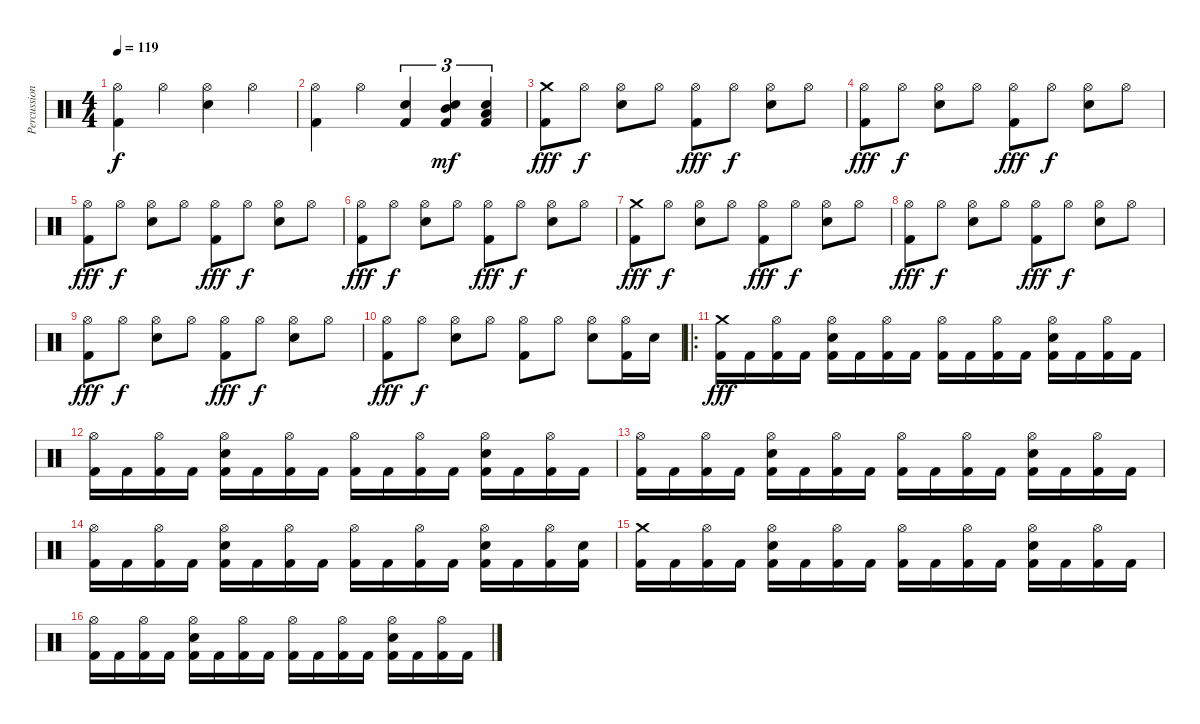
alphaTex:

\track ("Percussion" "Percussion") {instrument percussion}
\staff {score}
\articulation defaults
\ts (4 4)
\tempo 119
\clef neutral
\ks c
("Hi-Hat (open)" "Kick (hit) 2").4{dy f} "Hi-Hat (open)".4 ("Hi-Hat (open)" "Electric Snare (hit)").4 "Hi-Hat (open)".4 |
("Hi-Hat (open)" "Kick (hit) 2").4 "Hi-Hat (open)".4 ("Electric Snare (hit)" "Kick (hit) 2").4{tu (3 2)} ("Electric Snare (hit)" "Mid Tom (hit)" "Kick (hit) 2").4{tu (3 2) dy mf} ("Electric Snare (hit)" "Low Tom (hit)" "Kick (hit) 2").4{tu (3 2)} |
("Crash medium (hit)" "Kick (hit) 2").8{dy fff} "Hi-Hat (open)".8{dy f} ("Hi-Hat (open)" "Electric Snare (hit)").8 "Hi-Hat (open)".8 ("Hi-Hat (open)" "Kick (hit) 2").8{dy fff} "Hi-Hat (open)".8{dy f} ("Hi-Hat (open)" "Electric Snare (hit)").8 "Hi-Hat (open)".8 |
("Hi-Hat (open)" "Kick (hit) 2").8{dy fff} "Hi-Hat (open)".8{dy f} ("Hi-Hat (open)" "Electric Snare (hit)").8 "Hi-Hat (open)".8 ("Hi-Hat (open)" "Kick (hit) 2").8{dy fff} "Hi-Hat (open)".8{dy f} ("Hi-Hat (open)" "Electric Snare (hit)").8 "Hi-Hat (open)".8 |
("Hi-Hat (open)" "Kick (hit) 2").8{dy fff} "Hi-Hat (open)".8{dy f} ("Hi-Hat (open)" "Electric Snare (hit)").8 "Hi-Hat (open)".8 ("Hi-Hat (open)" "Kick (hit) 2").8{dy fff} "Hi-Hat (open)".8{dy f} ("Hi-Hat (open)" "Electric Snare (hit)").8 "Hi-Hat (open)".8 |
("Hi-Hat (open)" "Kick (hit) 2").8{dy fff} "Hi-Hat (open)".8{dy f} ("Hi-Hat (open)" "Electric Snare (hit)").8 "Hi-Hat (open)".8 ("Hi-Hat (open)" "Kick (hit) 2").8{dy fff} "Hi-Hat (open)".8{dy f} ("Hi-Hat (open)" "Electric Snare (hit)").8 "Hi-Hat (open)".8 |
("Crash medium (hit)" "Kick (hit) 2").8{dy fff} "Hi-Hat (open)".8{dy f} ("Hi-Hat (open)" "Electric Snare (hit)").8 "Hi-Hat (open)".8 ("Hi-Hat (open)" "Kick (hit) 2").8{dy fff} "Hi-Hat (open)".8{dy f} ("Hi-Hat (open)" "Electric Snare (hit)").8 "Hi-Hat (open)".8 |
("Hi-Hat (open)" "Kick (hit) 2").8{dy fff} "Hi-Hat (open)".8{dy f} ("Hi-Hat (open)" "Electric Snare (hit)").8 "Hi-Hat (open)".8 ("Hi-Hat (open)" "Kick (hit) 2").8{dy fff} "Hi-Hat (open)".8{dy f} ("Hi-Hat (open)" "Electric Snare (hit)").8 "Hi-Hat (open)".8 |
("Hi-Hat (open)" "Kick (hit) 2").8{dy fff} "Hi-Hat (open)".8{dy f} ("Hi-Hat (open)" "Electric Snare (hit)").8 "Hi-Hat (open)".8 ("Hi-Hat (open)" "Kick (hit) 2").8{dy fff} "Hi-Hat (open)".8{dy f} ("Hi-Hat (open)" "Electric Snare (hit)").8 "Hi-Hat (open)".8 |
("Hi-Hat (open)" "Kick (hit) 2").8{dy fff} "Hi-Hat (open)".8{dy f} ("Hi-Hat (open)" "Electric Snare (hit)").8 "Hi-Hat (open)".8 ("Hi-Hat (open)" "Kick (hit) 2").8 "Hi-Hat (open)".8 ("Hi-Hat (open)" "Electric Snare (hit)").8 ("Hi-Hat (open)" "Kick (hit) 2").16 "Electric Snare (hit)".16 |
\ro
("Crash medium (hit)" "Kick (hit) 2").16{dy fff} "Kick (hit) 2".16 ("Hi-Hat (open)" "Kick (hit) 2").16 "Kick (hit) 2".16 ("Hi-Hat (open)" "Electric Snare (hit)" "Kick (hit) 2").16 "Kick (hit) 2".16 ("Hi-Hat (open)" "Kick (hit) 2").16 "Kick (hit) 2".16 ("Hi-Hat (open)" "Kick (hit) 2").16 "Kick (hit) 2".16 ("Hi-Hat (open)" "Kick (hit) 2").16 "Kick (hit) 2".16 ("Hi-Hat (open)" "Electric Snare (hit)" "Kick (hit) 2").16 "Kick (hit) 2".16 ("Hi-Hat (open)" "Kick (hit) 2").16 "Kick (hit) 2".16 |
("Hi-Hat (open)" "Kick (hit) 2").16 "Kick (hit) 2".16 ("Hi-Hat (open)" "Kick (hit) 2").16 "Kick (hit) 2".16 ("Hi-Hat (open)" "Electric Snare (hit)" "Kick (hit) 2").16 "Kick (hit) 2".16 ("Hi-Hat (open)" "Kick (hit) 2").16 "Kick (hit) 2".16 ("Hi-Hat (open)" "Kick (hit) 2").16 "Kick (hit) 2".16 ("Hi-Hat (open)" "Kick (hit) 2").16 "Kick (hit) 2".16 ("Hi-Hat (open)" "Electric Snare (hit)" "Kick (hit) 2").16 "Kick (hit) 2".16 ("Hi-Hat (open)" "Kick (hit) 2").16 "Kick (hit) 2".16 |
("Hi-Hat (open)" "Kick (hit) 2").16 "Kick (hit) 2".16 ("Hi-Hat (open)" "Kick (hit) 2").16 "Kick (hit) 2".16 ("Hi-Hat (open)" "Electric Snare (hit)" "Kick (hit) 2").16 "Kick (hit) 2".16 ("Hi-Hat (open)" "Kick (hit) 2").16 "Kick (hit) 2".16 ("Hi-Hat (open)" "Kick (hit) 2").16 "Kick (hit) 2".16 ("Hi-Hat (open)" "Kick (hit) 2").16 "Kick (hit) 2".16 ("Hi-Hat (open)" "Electric Snare (hit)" "Kick (hit) 2").16 "Kick (hit) 2".16 ("Hi-Hat (open)" "Kick (hit) 2").16 "Kick (hit) 2".16 |
("Hi-Hat (open)" "Kick (hit) 2").16 "Kick (hit) 2".16 ("Hi-Hat (open)" "Kick (hit) 2").16 "Kick (hit) 2".16 ("Hi-Hat (open)" "Electric Snare (hit)" "Kick (hit) 2").16 "Kick (hit) 2".16 ("Hi-Hat (open)" "Kick (hit) 2").16 "Kick (hit) 2".16 ("Hi-Hat (open)" "Kick (hit) 2").16 "Kick (hit) 2".16 ("Hi-Hat (open)" "Kick (hit) 2").16 "Kick (hit) 2".16 ("Hi-Hat (open)" "Electric Snare (hit)" "Kick (hit) 2").16 "Kick (hit) 2".16 ("Hi-Hat (open)" "Kick (hit) 2").16 ("Electric Snare (hit)" "Kick (hit) 2").16 |
("Crash medium (hit)" "Kick (hit) 2").16 "Kick (hit) 2".16 ("Hi-Hat (open)" "Kick (hit) 2").16 "Kick (hit) 2".16 ("Hi-Hat (open)" "Electric Snare (hit)" "Kick (hit) 2").16 "Kick (hit) 2".16 ("Hi-Hat (open)" "Kick (hit) 2").16 "Kick (hit) 2".16 ("Hi-Hat (open)" "Kick (hit) 2").16 "Kick (hit) 2".16 ("Hi-Hat (open)" "Kick (hit) 2").16 "Kick (hit) 2".16 ("Hi-Hat (open)" "Electric Snare (hit)" "Kick (hit) 2").16 "Kick (hit) 2".16 ("Hi-Hat (open)" "Kick (hit) 2").16 "Kick (hit) 2".16 |
("Hi-Hat (open)" "Kick (hit) 2").16 "Kick (hit) 2".16 ("Hi-Hat (open)" "Kick (hit) 2").16 "Kick (hit) 2".16 ("Hi-Hat (open)" "Electric Snare (hit)" "Kick (hit) 2").16 "Kick (hit) 2".16 ("Hi-Hat (open)" "Kick (hit) 2").16 "Kick (hit) 2".16 ("Hi-Hat (open)" "Kick (hit) 2").16 "Kick (hit) 2".16 ("Hi-Hat (open)" "Kick (hit) 2").16 "Kick (hit) 2".16 ("Hi-Hat (open)" "Electric Snare (hit)" "Kick (hit) 2").16 "Kick (hit) 2".16 ("Hi-Hat (open)" "Kick (hit) 2").16 "Kick (hit) 2".16
